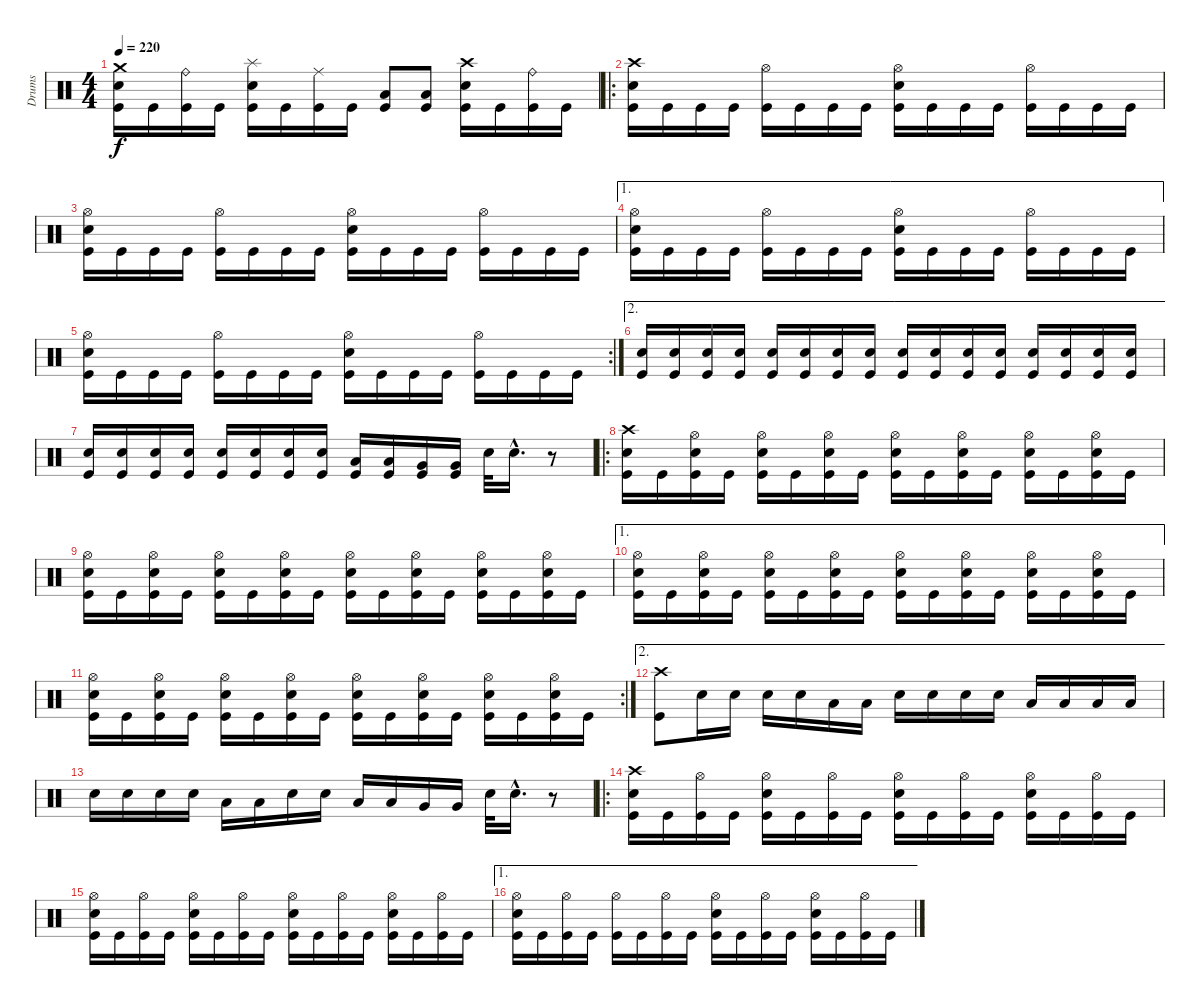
\track ("Drums" "Drums") {instrument percussion}
\staff {score}
\articulation defaults
\ts (4 4)
\tempo 220
\clef neutral
\ks c
("Crash medium (hit)" "Electric Snare (hit)" "Kick (hit)").16{dy f} "Kick (hit)".16 ("Ride (bell)" "Kick (hit)").16 "Kick (hit)".16 ("Splash (hit)" "Electric Snare (hit)" "Kick (hit)").16 "Kick (hit)".16 ("Ride (middle)" "Kick (hit)").16 "Kick (hit)".16 ("Low Floor Tom (hit)" "Kick (hit)").8 ("Low Floor Tom (hit)" "Kick (hit)").8 ("Crash high (hit)" "Electric Snare (hit)" "Kick (hit)").16 "Kick (hit)".16 ("Ride (bell)" "Kick (hit)").16 "Kick (hit)".16 |
\ro
("Crash high (hit)" "Electric Snare (hit)" "Kick (hit)").16 "Kick (hit)".16 "Kick (hit)".16 "Kick (hit)".16 ("Hi-Hat (open)" "Kick (hit)").16 "Kick (hit)".16 "Kick (hit)".16 "Kick (hit)".16 ("Hi-Hat (open)" "Electric Snare (hit)" "Kick (hit)").16 "Kick (hit)".16 "Kick (hit)".16 "Kick (hit)".16 ("Hi-Hat (open)" "Kick (hit)").16 "Kick (hit)".16 "Kick (hit)".16 "Kick (hit)".16 |
("Hi-Hat (open)" "Electric Snare (hit)" "Kick (hit)").16 "Kick (hit)".16 "Kick (hit)".16 "Kick (hit)".16 ("Hi-Hat (open)" "Kick (hit)").16 "Kick (hit)".16 "Kick (hit)".16 "Kick (hit)".16 ("Hi-Hat (open)" "Electric Snare (hit)" "Kick (hit)").16 "Kick (hit)".16 "Kick (hit)".16 "Kick (hit)".16 ("Hi-Hat (open)" "Kick (hit)").16 "Kick (hit)".16 "Kick (hit)".16 "Kick (hit)".16 |
\ae 1
("Hi-Hat (open)" "Electric Snare (hit)" "Kick (hit)").16 "Kick (hit)".16 "Kick (hit)".16 "Kick (hit)".16 ("Hi-Hat (open)" "Kick (hit)").16 "Kick (hit)".16 "Kick (hit)".16 "Kick (hit)".16 ("Hi-Hat (open)" "Electric Snare (hit)" "Kick (hit)").16 "Kick (hit)".16 "Kick (hit)".16 "Kick (hit)".16 ("Hi-Hat (open)" "Kick (hit)").16 "Kick (hit)".16 "Kick (hit)".16 "Kick (hit)".16 |
\rc 2
("Hi-Hat (open)" "Electric Snare (hit)" "Kick (hit)").16 "Kick (hit)".16 "Kick (hit)".16 "Kick (hit)".16 ("Hi-Hat (open)" "Kick (hit)").16 "Kick (hit)".16 "Kick (hit)".16 "Kick (hit)".16 ("Hi-Hat (open)" "Electric Snare (hit)" "Kick (hit)").16 "Kick (hit)".16 "Kick (hit)".16 "Kick (hit)".16 ("Hi-Hat (open)" "Kick (hit)").16 "Kick (hit)".16 "Kick (hit)".16 "Kick (hit)".16 |
\ae 2
("Electric Snare (hit)" "Kick (hit)").16 ("Electric Snare (hit)" "Kick (hit)").16 ("Electric Snare (hit)" "Kick (hit)").16 ("Electric Snare (hit)" "Kick (hit)").16 ("Electric Snare (hit)" "Kick (hit)").16 ("Electric Snare (hit)" "Kick (hit)").16 ("Electric Snare (hit)" "Kick (hit)").16 ("Electric Snare (hit)" "Kick (hit)").16 ("Electric Snare (hit)" "Kick (hit)").16 ("Electric Snare (hit)" "Kick (hit)").16 ("Electric Snare (hit)" "Kick (hit)").16 ("Electric Snare (hit)" "Kick (hit)").16 ("Electric Snare (hit)" "Kick (hit)").16 ("Electric Snare (hit)" "Kick (hit)").16 ("Electric Snare (hit)" "Kick (hit)").16 ("Electric Snare (hit)" "Kick (hit)").16 |
("Electric Snare (hit)" "Kick (hit)").16 ("Electric Snare (hit)" "Kick (hit)").16 ("Electric Snare (hit)" "Kick (hit)").16 ("Electric Snare (hit)" "Kick (hit)").16 ("Electric Snare (hit)" "Kick (hit)").16 ("Electric Snare (hit)" "Kick (hit)").16 ("Electric Snare (hit)" "Kick (hit)").16 ("Electric Snare (hit)" "Kick (hit)").16 ("Low Tom (hit)" "Kick (hit)").16 ("Low Tom (hit)" "Kick (hit)").16 ("Very Low Tom (hit)" "Kick (hit)").16 ("Very Low Tom (hit)" "Kick (hit)").16 "Electric Snare (hit)".32 "Electric Snare (hit)"{hac}.16{d} r.8 |
\ro
("Crash high (hit)" "Electric Snare (hit)" "Kick (hit)").16 "Kick (hit)".16 ("Hi-Hat (open)" "Electric Snare (hit)" "Kick (hit)").16 "Kick (hit)".16 ("Hi-Hat (open)" "Electric Snare (hit)" "Kick (hit)").16 "Kick (hit)".16 ("Hi-Hat (open)" "Electric Snare (hit)" "Kick (hit)").16 "Kick (hit)".16 ("Hi-Hat (open)" "Electric Snare (hit)" "Kick (hit)").16 "Kick (hit)".16 ("Hi-Hat (open)" "Electric Snare (hit)" "Kick (hit)").16 "Kick (hit)".16 ("Hi-Hat (open)" "Electric Snare (hit)" "Kick (hit)").16 "Kick (hit)".16 ("Hi-Hat (open)" "Electric Snare (hit)" "Kick (hit)").16 "Kick (hit)".16 |
("Hi-Hat (open)" "Electric Snare (hit)" "Kick (hit)").16 "Kick (hit)".16 ("Hi-Hat (open)" "Electric Snare (hit)" "Kick (hit)").16 "Kick (hit)".16 ("Hi-Hat (open)" "Electric Snare (hit)" "Kick (hit)").16 "Kick (hit)".16 ("Hi-Hat (open)" "Electric Snare (hit)" "Kick (hit)").16 "Kick (hit)".16 ("Hi-Hat (open)" "Electric Snare (hit)" "Kick (hit)").16 "Kick (hit)".16 ("Hi-Hat (open)" "Electric Snare (hit)" "Kick (hit)").16 "Kick (hit)".16 ("Hi-Hat (open)" "Electric Snare (hit)" "Kick (hit)").16 "Kick (hit)".16 ("Hi-Hat (open)" "Electric Snare (hit)" "Kick (hit)").16 "Kick (hit)".16 |
\ae 1
("Hi-Hat (open)" "Electric Snare (hit)" "Kick (hit)").16 "Kick (hit)".16 ("Hi-Hat (open)" "Electric Snare (hit)" "Kick (hit)").16 "Kick (hit)".16 ("Hi-Hat (open)" "Electric Snare (hit)" "Kick (hit)").16 "Kick (hit)".16 ("Hi-Hat (open)" "Electric Snare (hit)" "Kick (hit)").16 "Kick (hit)".16 ("Hi-Hat (open)" "Electric Snare (hit)" "Kick (hit)").16 "Kick (hit)".16 ("Hi-Hat (open)" "Electric Snare (hit)" "Kick (hit)").16 "Kick (hit)".16 ("Hi-Hat (open)" "Electric Snare (hit)" "Kick (hit)").16 "Kick (hit)".16 ("Hi-Hat (open)" "Electric Snare (hit)" "Kick (hit)").16 "Kick (hit)".16 |
\rc 2
("Hi-Hat (open)" "Electric Snare (hit)" "Kick (hit)").16 "Kick (hit)".16 ("Hi-Hat (open)" "Electric Snare (hit)" "Kick (hit)").16 "Kick (hit)".16 ("Hi-Hat (open)" "Electric Snare (hit)" "Kick (hit)").16 "Kick (hit)".16 ("Hi-Hat (open)" "Electric Snare (hit)" "Kick (hit)").16 "Kick (hit)".16 ("Hi-Hat (open)" "Electric Snare (hit)" "Kick (hit)").16 "Kick (hit)".16 ("Hi-Hat (open)" "Electric Snare (hit)" "Kick (hit)").16 "Kick (hit)".16 ("Hi-Hat (open)" "Electric Snare (hit)" "Kick (hit)").16 "Kick (hit)".16 ("Hi-Hat (open)" "Electric Snare (hit)" "Kick (hit)").16 "Kick (hit)".16 |
\ae 2
("Crash high (hit)" "Kick (hit)").8 "Electric Snare (hit)".16 "Electric Snare (hit)".16 "Electric Snare (hit)".16 "Electric Snare (hit)".16 "Low Tom (hit)".16 "Low Tom (hit)".16 "Electric Snare (hit)".16 "Electric Snare (hit)".16 "Electric Snare (hit)".16 "Electric Snare (hit)".16 "Low Tom (hit)".16 "Low Tom (hit)".16 "Low Tom (hit)".16 "Low Tom (hit)".16 |
"Electric Snare (hit)".16 "Electric Snare (hit)".16 "Electric Snare (hit)".16 "Electric Snare (hit)".16 "Low Tom (hit)".16 "Low Tom (hit)".16 "Electric Snare (hit)".16 "Electric Snare (hit)".16 "Low Tom (hit)".16 "Low Tom (hit)".16 "Very Low Tom (hit)".16 "Very Low Tom (hit)".16 "Electric Snare (hit)".32 "Electric Snare (hit)"{hac}.16{d} r.8 |
\ro
("Crash high (hit)" "Electric Snare (hit)" "Kick (hit)").16 "Kick (hit)".16 ("Hi-Hat (open)" "Kick (hit)").16 "Kick (hit)".16 ("Hi-Hat (open)" "Electric Snare (hit)" "Kick (hit)").16 "Kick (hit)".16 ("Hi-Hat (open)" "Kick (hit)").16 "Kick (hit)".16 ("Hi-Hat (open)" "Electric Snare (hit)" "Kick (hit)").16 "Kick (hit)".16 ("Hi-Hat (open)" "Kick (hit)").16 "Kick (hit)".16 ("Hi-Hat (open)" "Electric Snare (hit)" "Kick (hit)").16 "Kick (hit)".16 ("Hi-Hat (open)" "Kick (hit)").16 "Kick (hit)".16 |
("Hi-Hat (open)" "Electric Snare (hit)" "Kick (hit)").16 "Kick (hit)".16 ("Hi-Hat (open)" "Kick (hit)").16 "Kick (hit)".16 ("Hi-Hat (open)" "Electric Snare (hit)" "Kick (hit)").16 "Kick (hit)".16 ("Hi-Hat (open)" "Kick (hit)").16 "Kick (hit)".16 ("Hi-Hat (open)" "Electric Snare (hit)" "Kick (hit)").16 "Kick (hit)".16 ("Hi-Hat (open)" "Kick (hit)").16 "Kick (hit)".16 ("Hi-Hat (open)" "Electric Snare (hit)" "Kick (hit)").16 "Kick (hit)".16 ("Hi-Hat (open)" "Kick (hit)").16 "Kick (hit)".16 |
\ae 1
("Hi-Hat (open)" "Electric Snare (hit)" "Kick (hit)").16 "Kick (hit)".16 ("Hi-Hat (open)" "Kick (hit)").16 "Kick (hit)".16 ("Hi-Hat (open)" "Kick (hit)").16 "Kick (hit)".16 ("Hi-Hat (open)" "Kick (hit)").16 "Kick (hit)".16 ("Hi-Hat (open)" "Electric Snare (hit)" "Kick (hit)").16 "Kick (hit)".16 ("Hi-Hat (open)" "Kick (hit)").16 "Kick (hit)".16 ("Hi-Hat (open)" "Electric Snare (hit)" "Kick (hit)").16 "Kick (hit)".16 ("Hi-Hat (open)" "Kick (hit)").16 "Kick (hit)".16
